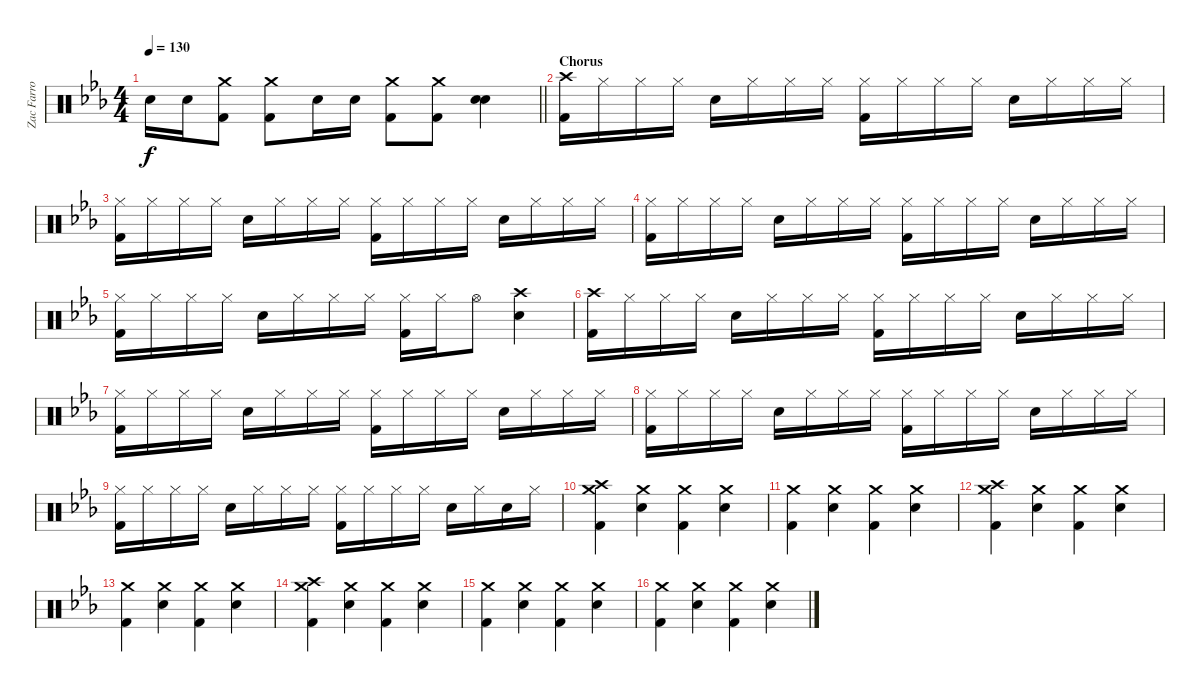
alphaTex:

\track ("Zac Farro (Drums)" "Zac Farro ") {instrument percussion}
\staff {score}
\articulation defaults
\ts (4 4)
\tempo 130
\clef neutral
\barLineRight lightlight
\ks eb "Electric Snare (hit)".16{dy f} "Electric Snare (hit)".16
("Crash medium (hit)" "Kick (hit) 2").8 ("Crash medium (hit)" "Kick (hit) 2").8 "Electric Snare (hit)".16 "Electric Snare (hit)".16 ("Crash medium (hit)" "Kick (hit) 2").8 ("Crash medium (hit)" "Kick (hit) 2").8 ("Electric Snare (hit)" "Electric Snare (hit)").4 |
\section ("" "Chorus")
("Crash high (hit)" "Kick (hit) 2").16 "Hi-Hat (closed)".16 "Hi-Hat (closed)".16 "Hi-Hat (closed)".16 "Electric Snare (hit)".16 "Hi-Hat (closed)".16 "Hi-Hat (closed)".16 "Hi-Hat (closed)".16 ("Hi-Hat (closed)" "Kick (hit) 2").16 "Hi-Hat (closed)".16 "Hi-Hat (closed)".16 "Hi-Hat (closed)".16 "Electric Snare (hit)".16 "Hi-Hat (closed)".16 "Hi-Hat (closed)".16 "Hi-Hat (closed)".16 |
("Hi-Hat (closed)" "Kick (hit) 2").16 "Hi-Hat (closed)".16 "Hi-Hat (closed)".16 "Hi-Hat (closed)".16 "Electric Snare (hit)".16 "Hi-Hat (closed)".16 "Hi-Hat (closed)".16 "Hi-Hat (closed)".16 ("Hi-Hat (closed)" "Kick (hit) 2").16 "Hi-Hat (closed)".16 "Hi-Hat (closed)".16 "Hi-Hat (closed)".16 "Electric Snare (hit)".16 "Hi-Hat (closed)".16 "Hi-Hat (closed)".16 "Hi-Hat (closed)".16 |
("Hi-Hat (closed)" "Kick (hit) 2").16 "Hi-Hat (closed)".16 "Hi-Hat (closed)".16 "Hi-Hat (closed)".16 "Electric Snare (hit)".16 "Hi-Hat (closed)".16 "Hi-Hat (closed)".16 "Hi-Hat (closed)".16 ("Hi-Hat (closed)" "Kick (hit) 2").16 "Hi-Hat (closed)".16 "Hi-Hat (closed)".16 "Hi-Hat (closed)".16 "Electric Snare (hit)".16 "Hi-Hat (closed)".16 "Hi-Hat (closed)".16 "Hi-Hat (closed)".16 |
("Hi-Hat (closed)" "Kick (hit) 2").16 "Hi-Hat (closed)".16 "Hi-Hat (closed)".16 "Hi-Hat (closed)".16 "Electric Snare (hit)".16 "Hi-Hat (closed)".16 "Hi-Hat (closed)".16 "Hi-Hat (closed)".16 ("Hi-Hat (closed)" "Kick (hit) 2").16 "Hi-Hat (closed)".16 "Hi-Hat (open)".8 ("Crash high (hit)" "Snare (hit) 2").4 |
("Crash high (hit)" "Kick (hit) 2").16 "Hi-Hat (closed)".16 "Hi-Hat (closed)".16 "Hi-Hat (closed)".16 "Electric Snare (hit)".16 "Hi-Hat (closed)".16 "Hi-Hat (closed)".16 "Hi-Hat (closed)".16 ("Hi-Hat (closed)" "Kick (hit) 2").16 "Hi-Hat (closed)".16 "Hi-Hat (closed)".16 "Hi-Hat (closed)".16 "Electric Snare (hit)".16 "Hi-Hat (closed)".16 "Hi-Hat (closed)".16 "Hi-Hat (closed)".16 |
("Hi-Hat (closed)" "Kick (hit) 2").16 "Hi-Hat (closed)".16 "Hi-Hat (closed)".16 "Hi-Hat (closed)".16 "Electric Snare (hit)".16 "Hi-Hat (closed)".16 "Hi-Hat (closed)".16 "Hi-Hat (closed)".16 ("Hi-Hat (closed)" "Kick (hit) 2").16 "Hi-Hat (closed)".16 "Hi-Hat (closed)".16 "Hi-Hat (closed)".16 "Electric Snare (hit)".16 "Hi-Hat (closed)".16 "Hi-Hat (closed)".16 "Hi-Hat (closed)".16 |
("Hi-Hat (closed)" "Kick (hit) 2").16 "Hi-Hat (closed)".16 "Hi-Hat (closed)".16 "Hi-Hat (closed)".16 "Electric Snare (hit)".16 "Hi-Hat (closed)".16 "Hi-Hat (closed)".16 "Hi-Hat (closed)".16 ("Hi-Hat (closed)" "Kick (hit) 2").16 "Hi-Hat (closed)".16 "Hi-Hat (closed)".16 "Hi-Hat (closed)".16 "Electric Snare (hit)".16 "Hi-Hat (closed)".16 "Hi-Hat (closed)".16 "Hi-Hat (closed)".16 |
("Hi-Hat (closed)" "Kick (hit) 2").16 "Hi-Hat (closed)".16 "Hi-Hat (closed)".16 "Hi-Hat (closed)".16 "Electric Snare (hit)".16 "Hi-Hat (closed)".16 "Hi-Hat (closed)".16 "Hi-Hat (closed)".16 ("Hi-Hat (closed)" "Kick (hit) 2").16 "Hi-Hat (closed)".16 "Hi-Hat (closed)".16 "Hi-Hat (closed)".16 "Electric Snare (hit)".16 "Hi-Hat (closed)".16 "Electric Snare (hit)".16 "Hi-Hat (closed)".16 |
("Crash medium (hit)" "Kick (hit) 2" "Crash high (hit)").4 ("Crash medium (hit)" "Electric Snare (hit)").4 ("Crash medium (hit)" "Kick (hit) 2").4 ("Crash medium (hit)" "Electric Snare (hit)").4 |
("Crash medium (hit)" "Kick (hit) 2").4 ("Crash medium (hit)" "Electric Snare (hit)").4 ("Crash medium (hit)" "Kick (hit) 2").4 ("Crash medium (hit)" "Electric Snare (hit)").4 |
("Crash medium (hit)" "Kick (hit) 2" "Crash high (hit)").4 ("Crash medium (hit)" "Electric Snare (hit)").4 ("Crash medium (hit)" "Kick (hit) 2").4 ("Crash medium (hit)" "Electric Snare (hit)").4 |
("Crash medium (hit)" "Kick (hit) 2").4 ("Crash medium (hit)" "Electric Snare (hit)").4 ("Crash medium (hit)" "Kick (hit) 2").4 ("Crash medium (hit)" "Electric Snare (hit)").4 |
("Crash medium (hit)" "Kick (hit) 2" "Crash high (hit)").4 ("Crash medium (hit)" "Electric Snare (hit)").4 ("Crash medium (hit)" "Kick (hit) 2").4 ("Crash medium (hit)" "Electric Snare (hit)").4 |
("Crash medium (hit)" "Kick (hit) 2").4 ("Crash medium (hit)" "Electric Snare (hit)").4 ("Crash medium (hit)" "Kick (hit) 2").4 ("Crash medium (hit)" "Electric Snare (hit)").4 |
("Crash medium (hit)" "Kick (hit) 2").4 ("Crash medium (hit)" "Electric Snare (hit)").4 ("Crash medium (hit)" "Kick (hit) 2").4 ("Crash medium (hit)" "Electric Snare (hit)").4
